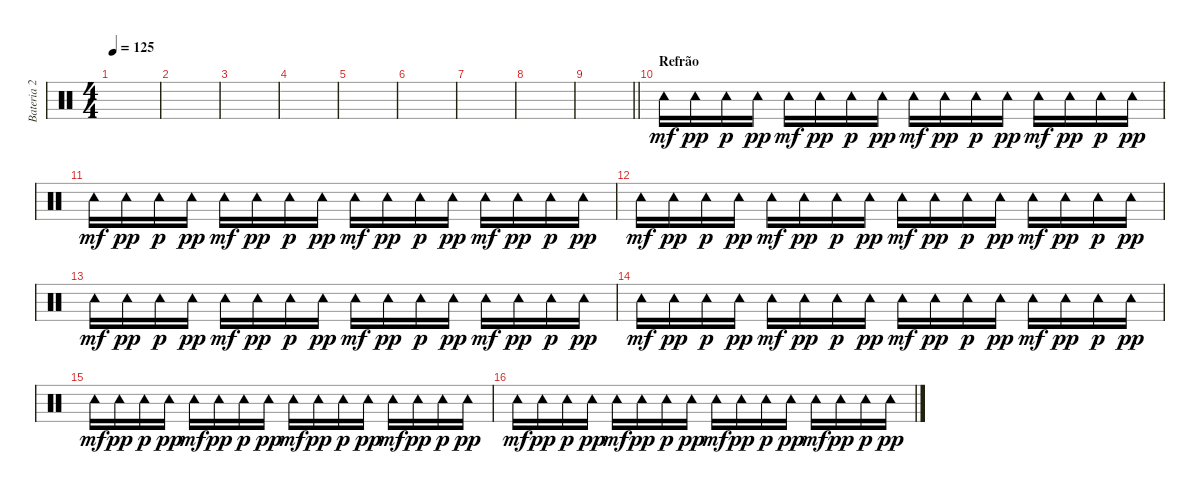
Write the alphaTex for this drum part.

\track ("Bateria 2" "Bateria 2") {instrument percussion}
\staff {score}
\articulation defaults
\ts (4 4)
\tempo 125
\clef neutral
\ks c
|
|
|
|
|
|
|
|
\barLineRight lightlight
|
\section ("" "Refrão")
"Tambourine (hit)".16{dy mf} "Tambourine (hit)".16{dy pp} "Tambourine (hit)".16{dy p} "Tambourine (hit)".16{dy pp} "Tambourine (hit)".16{dy mf} "Tambourine (hit)".16{dy pp} "Tambourine (hit)".16{dy p} "Tambourine (hit)".16{dy pp} "Tambourine (hit)".16{dy mf} "Tambourine (hit)".16{dy pp} "Tambourine (hit)".16{dy p} "Tambourine (hit)".16{dy pp} "Tambourine (hit)".16{dy mf} "Tambourine (hit)".16{dy pp} "Tambourine (hit)".16{dy p} "Tambourine (hit)".16{dy pp} |
"Tambourine (hit)".16{dy mf} "Tambourine (hit)".16{dy pp} "Tambourine (hit)".16{dy p} "Tambourine (hit)".16{dy pp} "Tambourine (hit)".16{dy mf} "Tambourine (hit)".16{dy pp} "Tambourine (hit)".16{dy p} "Tambourine (hit)".16{dy pp} "Tambourine (hit)".16{dy mf} "Tambourine (hit)".16{dy pp} "Tambourine (hit)".16{dy p} "Tambourine (hit)".16{dy pp} "Tambourine (hit)".16{dy mf} "Tambourine (hit)".16{dy pp} "Tambourine (hit)".16{dy p} "Tambourine (hit)".16{dy pp} |
"Tambourine (hit)".16{dy mf} "Tambourine (hit)".16{dy pp} "Tambourine (hit)".16{dy p} "Tambourine (hit)".16{dy pp} "Tambourine (hit)".16{dy mf} "Tambourine (hit)".16{dy pp} "Tambourine (hit)".16{dy p} "Tambourine (hit)".16{dy pp} "Tambourine (hit)".16{dy mf} "Tambourine (hit)".16{dy pp} "Tambourine (hit)".16{dy p} "Tambourine (hit)".16{dy pp} "Tambourine (hit)".16{dy mf} "Tambourine (hit)".16{dy pp} "Tambourine (hit)".16{dy p} "Tambourine (hit)".16{dy pp} |
"Tambourine (hit)".16{dy mf} "Tambourine (hit)".16{dy pp} "Tambourine (hit)".16{dy p} "Tambourine (hit)".16{dy pp} "Tambourine (hit)".16{dy mf} "Tambourine (hit)".16{dy pp} "Tambourine (hit)".16{dy p} "Tambourine (hit)".16{dy pp} "Tambourine (hit)".16{dy mf} "Tambourine (hit)".16{dy pp} "Tambourine (hit)".16{dy p} "Tambourine (hit)".16{dy pp} "Tambourine (hit)".16{dy mf} "Tambourine (hit)".16{dy pp} "Tambourine (hit)".16{dy p} "Tambourine (hit)".16{dy pp} |
"Tambourine (hit)".16{dy mf} "Tambourine (hit)".16{dy pp} "Tambourine (hit)".16{dy p} "Tambourine (hit)".16{dy pp} "Tambourine (hit)".16{dy mf} "Tambourine (hit)".16{dy pp} "Tambourine (hit)".16{dy p} "Tambourine (hit)".16{dy pp} "Tambourine (hit)".16{dy mf} "Tambourine (hit)".16{dy pp} "Tambourine (hit)".16{dy p} "Tambourine (hit)".16{dy pp} "Tambourine (hit)".16{dy mf} "Tambourine (hit)".16{dy pp} "Tambourine (hit)".16{dy p} "Tambourine (hit)".16{dy pp} |
"Tambourine (hit)".16{dy mf} "Tambourine (hit)".16{dy pp} "Tambourine (hit)".16{dy p} "Tambourine (hit)".16{dy pp} "Tambourine (hit)".16{dy mf} "Tambourine (hit)".16{dy pp} "Tambourine (hit)".16{dy p} "Tambourine (hit)".16{dy pp} "Tambourine (hit)".16{dy mf} "Tambourine (hit)".16{dy pp} "Tambourine (hit)".16{dy p} "Tambourine (hit)".16{dy pp} "Tambourine (hit)".16{dy mf} "Tambourine (hit)".16{dy pp} "Tambourine (hit)".16{dy p} "Tambourine (hit)".16{dy pp} |
"Tambourine (hit)".16{dy mf} "Tambourine (hit)".16{dy pp} "Tambourine (hit)".16{dy p} "Tambourine (hit)".16{dy pp} "Tambourine (hit)".16{dy mf} "Tambourine (hit)".16{dy pp} "Tambourine (hit)".16{dy p} "Tambourine (hit)".16{dy pp} "Tambourine (hit)".16{dy mf} "Tambourine (hit)".16{dy pp} "Tambourine (hit)".16{dy p} "Tambourine (hit)".16{dy pp} "Tambourine (hit)".16{dy mf} "Tambourine (hit)".16{dy pp} "Tambourine (hit)".16{dy p} "Tambourine (hit)".16{dy pp}
